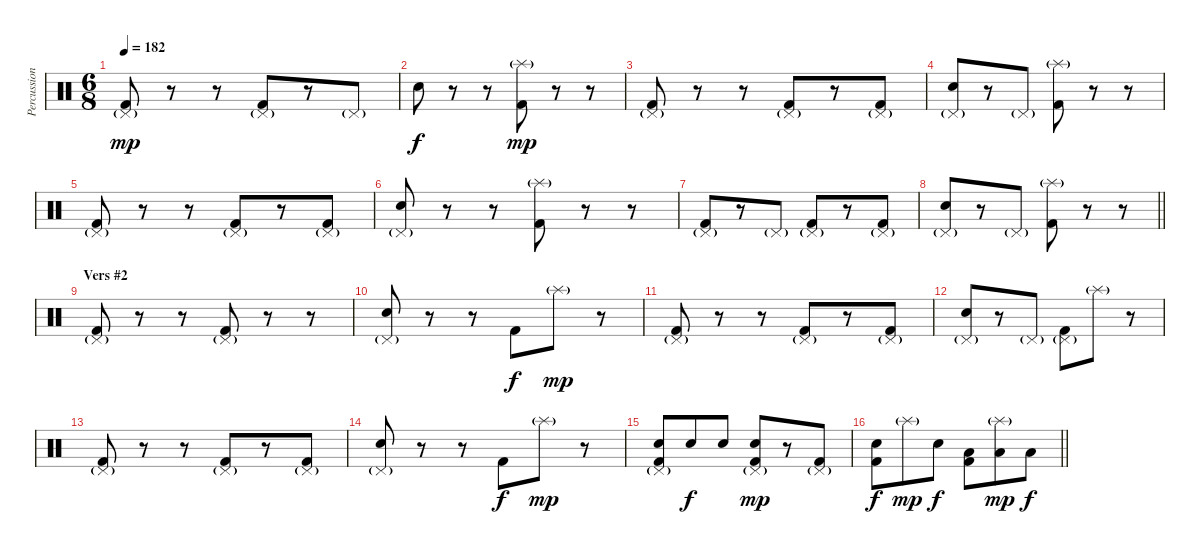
\track ("Percussion" "Percussion") {instrument percussion}
\staff {score}
\articulation defaults
\ts (6 8)
\tempo 182
\clef neutral
\ks c
("Kick (hit) 2" "Pedal Hi-Hat (hit)"{g}).8{dy mp} r.8 r.8 ("Kick (hit) 2" "Pedal Hi-Hat (hit)"{g}).8 r.8 "Pedal Hi-Hat (hit)"{g}.8 |
"Snare (hit) 2".8{dy f} r.8 r.8 ("Kick (hit) 2" "Splash (hit)"{g}).8{dy mp} r.8 r.8 |
("Kick (hit) 2" "Pedal Hi-Hat (hit)"{g}).8 r.8 r.8 ("Kick (hit) 2" "Pedal Hi-Hat (hit)"{g}).8 r.8 ("Kick (hit) 2" "Pedal Hi-Hat (hit)"{g}).8 |
("Snare (hit) 2" "Pedal Hi-Hat (hit)"{g}).8 r.8 "Pedal Hi-Hat (hit)"{g}.8 ("Kick (hit) 2" "Splash (hit)"{g}).8 r.8 r.8 |
("Kick (hit) 2" "Pedal Hi-Hat (hit)"{g}).8 r.8 r.8 ("Kick (hit) 2" "Pedal Hi-Hat (hit)"{g}).8 r.8 ("Kick (hit) 2" "Pedal Hi-Hat (hit)"{g}).8 |
("Snare (hit) 2" "Pedal Hi-Hat (hit)"{g}).8 r.8 r.8 ("Kick (hit) 2" "Splash (hit)"{g}).8 r.8 r.8 |
("Kick (hit) 2" "Pedal Hi-Hat (hit)"{g}).8 r.8 "Pedal Hi-Hat (hit)"{g}.8 ("Kick (hit) 2" "Pedal Hi-Hat (hit)"{g}).8 r.8 ("Kick (hit) 2" "Pedal Hi-Hat (hit)"{g}).8 |
\barLineRight lightlight
("Snare (hit) 2" "Pedal Hi-Hat (hit)"{g}).8 r.8 "Pedal Hi-Hat (hit)"{g}.8 ("Kick (hit) 2" "Splash (hit)"{g}).8 r.8 r.8 |
\section ("" "Vers #2")
("Kick (hit) 2" "Pedal Hi-Hat (hit)"{g}).8 r.8 r.8 ("Kick (hit) 2" "Pedal Hi-Hat (hit)"{g}).8 r.8 r.8 |
("Snare (hit) 2" "Pedal Hi-Hat (hit)"{g}).8 r.8 r.8 "Kick (hit) 2".8{dy f} "Splash (hit)"{g}.8{dy mp} r.8 |
("Kick (hit) 2" "Pedal Hi-Hat (hit)"{g}).8 r.8 r.8 ("Kick (hit) 2" "Pedal Hi-Hat (hit)"{g}).8 r.8 ("Kick (hit) 2" "Pedal Hi-Hat (hit)"{g}).8 |
("Snare (hit) 2" "Pedal Hi-Hat (hit)"{g}).8 r.8 "Pedal Hi-Hat (hit)"{g}.8 ("Kick (hit) 2" "Pedal Hi-Hat (hit)"{g}).8 "Splash (hit)"{g}.8 r.8 |
("Kick (hit) 2" "Pedal Hi-Hat (hit)"{g}).8 r.8 r.8 ("Kick (hit) 2" "Pedal Hi-Hat (hit)"{g}).8 r.8 ("Kick (hit) 2" "Pedal Hi-Hat (hit)"{g}).8 |
("Snare (hit) 2" "Pedal Hi-Hat (hit)"{g}).8 r.8 r.8 "Kick (hit) 2".8{dy f} "Splash (hit)"{g}.8{dy mp} r.8 |
("Kick (hit) 2" "Snare (hit) 2" "Pedal Hi-Hat (hit)"{g}).8 "Snare (hit) 2".8{dy f} "Snare (hit) 2".8 ("Kick (hit) 2" "Snare (hit) 2" "Pedal Hi-Hat (hit)"{g}).8{dy mp} r.8 ("Kick (hit) 2" "Pedal Hi-Hat (hit)"{g}).8 |
\barLineRight lightlight
("Kick (hit) 2" "Snare (hit) 2").8{dy f} "Splash (hit)"{g}.8{dy mp} "Snare (hit) 2".8{dy f} ("Kick (hit) 2" "Low Tom (hit)").8 ("Low Tom (hit)" "Splash (hit)"{g}).8{dy mp} "Low Tom (hit)".8{dy f}
